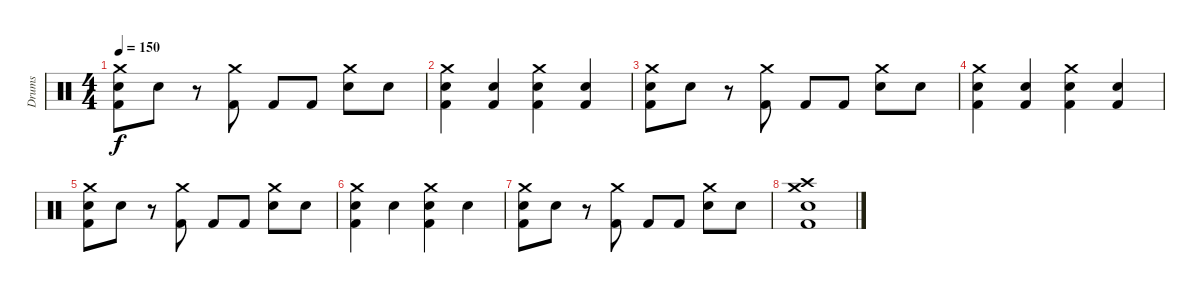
\track ("Drums" "Drums") {instrument percussion}
\staff {score}
\articulation defaults
\ts (4 4)
\tempo 150
\clef neutral
\ks c
("Crash medium (hit)" "Kick (hit) 2" "Electric Snare (hit)").8{dy f} "Snare (hit) 2".8 r.8 ("Crash medium (hit)" "Kick (hit) 2").8 "Kick (hit) 2".8 "Kick (hit) 2".8 ("Crash medium (hit)" "Electric Snare (hit)").8 "Snare (hit) 2".8 |
("Crash medium (hit)" "Electric Snare (hit)" "Kick (hit) 2").4 ("Electric Snare (hit)" "Kick (hit) 2").4 ("Crash medium (hit)" "Kick (hit) 2" "Electric Snare (hit)").4 ("Electric Snare (hit)" "Kick (hit) 2").4 |
("Crash medium (hit)" "Kick (hit) 2" "Electric Snare (hit)").8 "Snare (hit) 2".8 r.8 ("Crash medium (hit)" "Kick (hit) 2").8 "Kick (hit) 2".8 "Kick (hit) 2".8 ("Crash medium (hit)" "Electric Snare (hit)").8 "Snare (hit) 2".8 |
("Crash medium (hit)" "Electric Snare (hit)" "Kick (hit) 2").4 ("Electric Snare (hit)" "Kick (hit) 2").4 ("Crash medium (hit)" "Kick (hit) 2" "Electric Snare (hit)").4 ("Electric Snare (hit)" "Kick (hit) 2").4 |
("Crash medium (hit)" "Kick (hit) 2" "Electric Snare (hit)").8 "Snare (hit) 2".8 r.8 ("Crash medium (hit)" "Kick (hit) 2").8 "Kick (hit) 2".8 "Kick (hit) 2".8 ("Crash medium (hit)" "Electric Snare (hit)").8 "Snare (hit) 2".8 |
("Crash medium (hit)" "Electric Snare (hit)" "Kick (hit) 2").4 "Electric Snare (hit)".4 ("Crash medium (hit)" "Kick (hit) 2" "Electric Snare (hit)").4 "Electric Snare (hit)".4 |
("Crash medium (hit)" "Kick (hit) 2" "Electric Snare (hit)").8 "Snare (hit) 2".8 r.8 ("Crash medium (hit)" "Kick (hit) 2").8 "Kick (hit) 2".8 "Kick (hit) 2".8 ("Crash medium (hit)" "Electric Snare (hit)").8 "Snare (hit) 2".8 |
("Crash medium (hit)" "Crash high (hit)" "Kick (hit) 2" "Electric Snare (hit)").1
